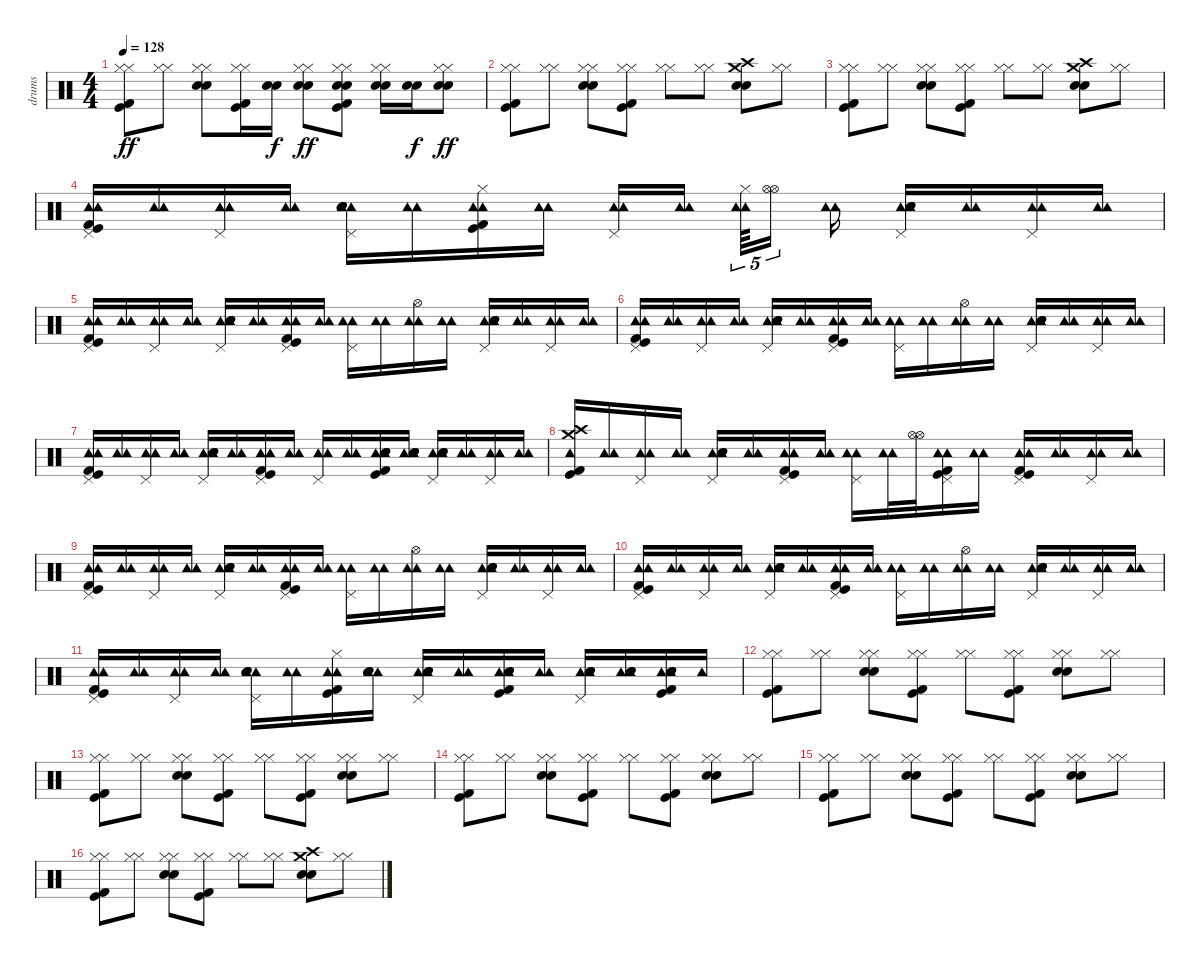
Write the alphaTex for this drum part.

\track ("drums" "drums") {instrument percussion}
\staff {score}
\articulation defaults
\ts (4 4)
\tempo 128
\clef neutral
\ks c
("Hi-Hat (closed)" "Hi-Hat (closed)" "Kick (hit)" "Kick (hit) 2").8{dy ff} ("Hi-Hat (closed)" "Hi-Hat (closed)").8 ("Hi-Hat (closed)" "Hi-Hat (closed)" "Snare (hit) 2" "Snare (hit) 2").8 ("Hi-Hat (closed)" "Hi-Hat (closed)" "Kick (hit)" "Kick (hit) 2").16 ("Snare (hit) 2" "Snare (hit) 2").16{dy f} ("Hi-Hat (closed)" "Hi-Hat (closed)" "Snare (hit) 2" "Snare (hit) 2").8{dy ff} ("Hi-Hat (closed)" "Hi-Hat (closed)" "Snare (hit) 2" "Snare (hit) 2" "Kick (hit)" "Kick (hit) 2").8 ("Hi-Hat (closed)" "Hi-Hat (closed)" "Snare (hit) 2" "Snare (hit) 2").16 ("Snare (hit) 2" "Snare (hit) 2").16{dy f} ("Hi-Hat (closed)" "Hi-Hat (closed)" "Snare (hit) 2" "Snare (hit) 2").8{dy ff} |
("Hi-Hat (closed)" "Hi-Hat (closed)" "Kick (hit)" "Kick (hit) 2").8 ("Hi-Hat (closed)" "Hi-Hat (closed)").8 ("Hi-Hat (closed)" "Hi-Hat (closed)" "Snare (hit) 2" "Snare (hit) 2").8 ("Hi-Hat (closed)" "Hi-Hat (closed)" "Kick (hit)" "Kick (hit) 2").8 ("Hi-Hat (closed)" "Hi-Hat (closed)").8 ("Hi-Hat (closed)" "Hi-Hat (closed)").8 ("Crash medium (hit)" "Snare (hit) 2" "Snare (hit) 2" "Crash high (hit)").8 ("Hi-Hat (closed)" "Hi-Hat (closed)").8 |
("Hi-Hat (closed)" "Hi-Hat (closed)" "Kick (hit)" "Kick (hit) 2").8 ("Hi-Hat (closed)" "Hi-Hat (closed)").8 ("Hi-Hat (closed)" "Hi-Hat (closed)" "Snare (hit) 2" "Snare (hit) 2").8 ("Hi-Hat (closed)" "Hi-Hat (closed)" "Kick (hit)" "Kick (hit) 2").8 ("Hi-Hat (closed)" "Hi-Hat (closed)").8 ("Hi-Hat (closed)" "Hi-Hat (closed)").8 ("Crash medium (hit)" "Snare (hit) 2" "Snare (hit) 2" "Crash high (hit)").8 ("Hi-Hat (closed)" "Hi-Hat (closed)").8 |
("Tambourine (hit)" "Tambourine (hit)" "Pedal Hi-Hat (hit)" "Kick (hit)" "Kick (hit) 2").16 ("Tambourine (hit)" "Tambourine (hit)").16 ("Tambourine (hit)" "Tambourine (hit)" "Pedal Hi-Hat (hit)").16 ("Tambourine (hit)" "Tambourine (hit)").16 ("Tambourine (hit)" "Tambourine (hit)" "Pedal Hi-Hat (hit)" "Snare (hit) 2" "Snare (hit) 2").16 ("Tambourine (hit)" "Tambourine (hit)").16 ("Tambourine (hit)" "Tambourine (hit)" "Hi-Hat (closed)" "Kick (hit)" "Kick (hit) 2").16 ("Tambourine (hit)" "Tambourine (hit)").16 ("Tambourine (hit)" "Tambourine (hit)" "Pedal Hi-Hat (hit)").16 ("Tambourine (hit)" "Tambourine (hit)").16 ("Tambourine (hit)" "Tambourine (hit)" "Hi-Hat (closed)").64{tu (5 4)} ("Hi-Hat (open)" "Hi-Hat (open)").16{tu (5 4)} ("Tambourine (hit)" "Tambourine (hit)").16 ("Tambourine (hit)" "Tambourine (hit)" "Pedal Hi-Hat (hit)" "Snare (hit) 2" "Snare (hit) 2").16 ("Tambourine (hit)" "Tambourine (hit)").16 ("Tambourine (hit)" "Tambourine (hit)" "Pedal Hi-Hat (hit)").16 ("Tambourine (hit)" "Tambourine (hit)").16 |
("Tambourine (hit)" "Tambourine (hit)" "Pedal Hi-Hat (hit)" "Kick (hit)" "Kick (hit) 2").16 ("Tambourine (hit)" "Tambourine (hit)").16 ("Tambourine (hit)" "Tambourine (hit)" "Pedal Hi-Hat (hit)").16 ("Tambourine (hit)" "Tambourine (hit)").16 ("Tambourine (hit)" "Tambourine (hit)" "Pedal Hi-Hat (hit)" "Snare (hit) 2" "Snare (hit) 2").16 ("Tambourine (hit)" "Tambourine (hit)").16 ("Tambourine (hit)" "Tambourine (hit)" "Pedal Hi-Hat (hit)" "Kick (hit)" "Kick (hit) 2").16 ("Tambourine (hit)" "Tambourine (hit)").16 ("Tambourine (hit)" "Tambourine (hit)" "Pedal Hi-Hat (hit)").16 ("Tambourine (hit)" "Tambourine (hit)").16 ("Tambourine (hit)" "Tambourine (hit)" "Hi-Hat (open)").16 ("Tambourine (hit)" "Tambourine (hit)").16 ("Tambourine (hit)" "Tambourine (hit)" "Pedal Hi-Hat (hit)" "Snare (hit) 2" "Snare (hit) 2").16 ("Tambourine (hit)" "Tambourine (hit)").16 ("Tambourine (hit)" "Tambourine (hit)" "Pedal Hi-Hat (hit)").16 ("Tambourine (hit)" "Tambourine (hit)").16 |
("Tambourine (hit)" "Tambourine (hit)" "Pedal Hi-Hat (hit)" "Kick (hit)" "Kick (hit) 2").16 ("Tambourine (hit)" "Tambourine (hit)").16 ("Tambourine (hit)" "Tambourine (hit)" "Pedal Hi-Hat (hit)").16 ("Tambourine (hit)" "Tambourine (hit)").16 ("Tambourine (hit)" "Tambourine (hit)" "Pedal Hi-Hat (hit)" "Snare (hit) 2" "Snare (hit) 2").16 ("Tambourine (hit)" "Tambourine (hit)").16 ("Tambourine (hit)" "Tambourine (hit)" "Pedal Hi-Hat (hit)" "Kick (hit)" "Kick (hit) 2").16 ("Tambourine (hit)" "Tambourine (hit)").16 ("Tambourine (hit)" "Tambourine (hit)" "Pedal Hi-Hat (hit)").16 ("Tambourine (hit)" "Tambourine (hit)").16 ("Tambourine (hit)" "Tambourine (hit)" "Hi-Hat (open)").16 ("Tambourine (hit)" "Tambourine (hit)").16 ("Tambourine (hit)" "Tambourine (hit)" "Pedal Hi-Hat (hit)" "Snare (hit) 2" "Snare (hit) 2").16 ("Tambourine (hit)" "Tambourine (hit)").16 ("Tambourine (hit)" "Tambourine (hit)" "Pedal Hi-Hat (hit)").16 ("Tambourine (hit)" "Tambourine (hit)").16 |
("Tambourine (hit)" "Tambourine (hit)" "Pedal Hi-Hat (hit)" "Kick (hit)" "Kick (hit) 2").16 ("Tambourine (hit)" "Tambourine (hit)").16 ("Tambourine (hit)" "Tambourine (hit)" "Pedal Hi-Hat (hit)").16 ("Tambourine (hit)" "Tambourine (hit)").16 ("Tambourine (hit)" "Tambourine (hit)" "Pedal Hi-Hat (hit)" "Snare (hit) 2" "Snare (hit) 2").16 ("Tambourine (hit)" "Tambourine (hit)").16 ("Pedal Hi-Hat (hit)" "Tambourine (hit)" "Tambourine (hit)" "Kick (hit)" "Kick (hit) 2").16 ("Tambourine (hit)" "Tambourine (hit)").16 ("Tambourine (hit)" "Tambourine (hit)" "Pedal Hi-Hat (hit)").16 ("Tambourine (hit)" "Tambourine (hit)").16 ("Tambourine (hit)" "Tambourine (hit)" "Snare (hit) 2" "Snare (hit) 2" "Kick (hit)" "Kick (hit) 2").16 ("Tambourine (hit)" "Tambourine (hit)" "Snare (hit) 2" "Snare (hit) 2").16 ("Tambourine (hit)" "Tambourine (hit)" "Pedal Hi-Hat (hit)" "Snare (hit) 2" "Snare (hit) 2").16 ("Tambourine (hit)" "Tambourine (hit)").16 ("Tambourine (hit)" "Tambourine (hit)" "Pedal Hi-Hat (hit)").16 ("Tambourine (hit)" "Tambourine (hit)").16 |
("Crash high (hit)" "Crash medium (hit)" "Tambourine (hit)" "Kick (hit)" "Kick (hit) 2").16 ("Tambourine (hit)" "Tambourine (hit)").16 ("Tambourine (hit)" "Tambourine (hit)" "Pedal Hi-Hat (hit)").16 ("Tambourine (hit)" "Tambourine (hit)").16 ("Tambourine (hit)" "Tambourine (hit)" "Pedal Hi-Hat (hit)" "Snare (hit) 2" "Snare (hit) 2").16 ("Tambourine (hit)" "Tambourine (hit)").16 ("Tambourine (hit)" "Tambourine (hit)" "Pedal Hi-Hat (hit)" "Kick (hit)" "Kick (hit) 2").16 ("Tambourine (hit)" "Tambourine (hit)").16 ("Tambourine (hit)" "Tambourine (hit)" "Pedal Hi-Hat (hit)").16 ("Tambourine (hit)" "Tambourine (hit)").32 ("Hi-Hat (open)" "Hi-Hat (open)").32 ("Tambourine (hit)" "Tambourine (hit)" "Pedal Hi-Hat (hit)" "Kick (hit)" "Kick (hit) 2").16 ("Tambourine (hit)" "Tambourine (hit)").16 ("Tambourine (hit)" "Tambourine (hit)" "Pedal Hi-Hat (hit)" "Kick (hit)" "Kick (hit) 2").16 ("Tambourine (hit)" "Tambourine (hit)").16 ("Tambourine (hit)" "Tambourine (hit)" "Pedal Hi-Hat (hit)").16 ("Tambourine (hit)" "Tambourine (hit)").16 |
("Tambourine (hit)" "Tambourine (hit)" "Pedal Hi-Hat (hit)" "Kick (hit)" "Kick (hit) 2").16 ("Tambourine (hit)" "Tambourine (hit)").16 ("Tambourine (hit)" "Tambourine (hit)" "Pedal Hi-Hat (hit)").16 ("Tambourine (hit)" "Tambourine (hit)").16 ("Tambourine (hit)" "Tambourine (hit)" "Pedal Hi-Hat (hit)" "Snare (hit) 2" "Snare (hit) 2").16 ("Tambourine (hit)" "Tambourine (hit)").16 ("Tambourine (hit)" "Tambourine (hit)" "Pedal Hi-Hat (hit)" "Kick (hit)" "Kick (hit) 2").16 ("Tambourine (hit)" "Tambourine (hit)").16 ("Tambourine (hit)" "Tambourine (hit)" "Pedal Hi-Hat (hit)").16 ("Tambourine (hit)" "Tambourine (hit)").16 ("Tambourine (hit)" "Tambourine (hit)" "Hi-Hat (open)").16 ("Tambourine (hit)" "Tambourine (hit)").16 ("Tambourine (hit)" "Tambourine (hit)" "Pedal Hi-Hat (hit)" "Snare (hit) 2" "Snare (hit) 2").16 ("Tambourine (hit)" "Tambourine (hit)").16 ("Tambourine (hit)" "Tambourine (hit)" "Pedal Hi-Hat (hit)").16 ("Tambourine (hit)" "Tambourine (hit)").16 |
("Tambourine (hit)" "Tambourine (hit)" "Pedal Hi-Hat (hit)" "Kick (hit)" "Kick (hit) 2").16 ("Tambourine (hit)" "Tambourine (hit)").16 ("Tambourine (hit)" "Tambourine (hit)" "Pedal Hi-Hat (hit)").16 ("Tambourine (hit)" "Tambourine (hit)").16 ("Tambourine (hit)" "Tambourine (hit)" "Pedal Hi-Hat (hit)" "Snare (hit) 2" "Snare (hit) 2").16 ("Tambourine (hit)" "Tambourine (hit)").16 ("Tambourine (hit)" "Tambourine (hit)" "Pedal Hi-Hat (hit)" "Kick (hit)" "Kick (hit) 2").16 ("Tambourine (hit)" "Tambourine (hit)").16 ("Tambourine (hit)" "Tambourine (hit)" "Pedal Hi-Hat (hit)").16 ("Tambourine (hit)" "Tambourine (hit)").16 ("Tambourine (hit)" "Tambourine (hit)" "Hi-Hat (open)").16 ("Tambourine (hit)" "Tambourine (hit)").16 ("Tambourine (hit)" "Tambourine (hit)" "Pedal Hi-Hat (hit)" "Snare (hit) 2" "Snare (hit) 2").16 ("Tambourine (hit)" "Tambourine (hit)").16 ("Tambourine (hit)" "Tambourine (hit)" "Pedal Hi-Hat (hit)").16 ("Tambourine (hit)" "Tambourine (hit)").16 |
("Tambourine (hit)" "Tambourine (hit)" "Pedal Hi-Hat (hit)" "Kick (hit)" "Kick (hit) 2").16 ("Tambourine (hit)" "Tambourine (hit)").16 ("Tambourine (hit)" "Tambourine (hit)" "Pedal Hi-Hat (hit)").16 ("Tambourine (hit)" "Tambourine (hit)").16 ("Tambourine (hit)" "Tambourine (hit)" "Pedal Hi-Hat (hit)" "Snare (hit) 2" "Snare (hit) 2").16 ("Tambourine (hit)" "Tambourine (hit)").16 ("Tambourine (hit)" "Hi-Hat (closed)" "Tambourine (hit)" "Kick (hit)" "Kick (hit) 2").16 ("Tambourine (hit)" "Tambourine (hit)" "Snare (hit) 2" "Snare (hit) 2").16 ("Tambourine (hit)" "Tambourine (hit)" "Pedal Hi-Hat (hit)" "Snare (hit) 2" "Snare (hit) 2").16 ("Tambourine (hit)" "Tambourine (hit)").16 ("Tambourine (hit)" "Tambourine (hit)" "Snare (hit) 2" "Snare (hit) 2" "Kick (hit)" "Kick (hit) 2").16 ("Tambourine (hit)" "Tambourine (hit)").16 ("Tambourine (hit)" "Tambourine (hit)" "Pedal Hi-Hat (hit)" "Snare (hit) 2" "Snare (hit) 2").16 ("Tambourine (hit)" "Tambourine (hit)" "Snare (hit) 2" "Snare (hit) 2").16 ("Tambourine (hit)" "Tambourine (hit)" "Snare (hit) 2" "Snare (hit) 2" "Kick (hit)" "Kick (hit) 2").16 "Tambourine (hit)".16 |
("Hi-Hat (closed)" "Hi-Hat (closed)" "Kick (hit)" "Kick (hit) 2").8 ("Hi-Hat (closed)" "Hi-Hat (closed)").8 ("Hi-Hat (closed)" "Hi-Hat (closed)" "Snare (hit) 2" "Snare (hit) 2").8 ("Hi-Hat (closed)" "Hi-Hat (closed)" "Kick (hit)" "Kick (hit) 2").8 ("Hi-Hat (closed)" "Hi-Hat (closed)").8 ("Hi-Hat (closed)" "Hi-Hat (closed)" "Kick (hit)" "Kick (hit) 2").8 ("Hi-Hat (closed)" "Hi-Hat (closed)" "Snare (hit) 2" "Snare (hit) 2").8 ("Hi-Hat (closed)" "Hi-Hat (closed)").8 |
("Hi-Hat (closed)" "Hi-Hat (closed)" "Kick (hit)" "Kick (hit) 2").8 ("Hi-Hat (closed)" "Hi-Hat (closed)").8 ("Hi-Hat (closed)" "Hi-Hat (closed)" "Snare (hit) 2" "Snare (hit) 2").8 ("Hi-Hat (closed)" "Hi-Hat (closed)" "Kick (hit)" "Kick (hit) 2").8 ("Hi-Hat (closed)" "Hi-Hat (closed)").8 ("Hi-Hat (closed)" "Hi-Hat (closed)" "Kick (hit)" "Kick (hit) 2").8 ("Hi-Hat (closed)" "Hi-Hat (closed)" "Snare (hit) 2" "Snare (hit) 2").8 ("Hi-Hat (closed)" "Hi-Hat (closed)").8 |
("Hi-Hat (closed)" "Hi-Hat (closed)" "Kick (hit)" "Kick (hit) 2").8 ("Hi-Hat (closed)" "Hi-Hat (closed)").8 ("Hi-Hat (closed)" "Hi-Hat (closed)" "Snare (hit) 2" "Snare (hit) 2").8 ("Hi-Hat (closed)" "Hi-Hat (closed)" "Kick (hit)" "Kick (hit) 2").8 ("Hi-Hat (closed)" "Hi-Hat (closed)").8 ("Hi-Hat (closed)" "Hi-Hat (closed)" "Kick (hit)" "Kick (hit) 2").8 ("Hi-Hat (closed)" "Hi-Hat (closed)" "Snare (hit) 2" "Snare (hit) 2").8 ("Hi-Hat (closed)" "Hi-Hat (closed)").8 |
("Hi-Hat (closed)" "Hi-Hat (closed)" "Kick (hit)" "Kick (hit) 2").8 ("Hi-Hat (closed)" "Hi-Hat (closed)").8 ("Hi-Hat (closed)" "Hi-Hat (closed)" "Snare (hit) 2" "Snare (hit) 2").8 ("Hi-Hat (closed)" "Hi-Hat (closed)" "Kick (hit)" "Kick (hit) 2").8 ("Hi-Hat (closed)" "Hi-Hat (closed)").8 ("Hi-Hat (closed)" "Hi-Hat (closed)" "Kick (hit)" "Kick (hit) 2").8 ("Hi-Hat (closed)" "Hi-Hat (closed)" "Snare (hit) 2" "Snare (hit) 2").8 ("Hi-Hat (closed)" "Hi-Hat (closed)").8 |
("Hi-Hat (closed)" "Hi-Hat (closed)" "Kick (hit)" "Kick (hit) 2").8 ("Hi-Hat (closed)" "Hi-Hat (closed)").8 ("Hi-Hat (closed)" "Hi-Hat (closed)" "Snare (hit) 2" "Snare (hit) 2").8 ("Hi-Hat (closed)" "Hi-Hat (closed)" "Kick (hit)" "Kick (hit) 2").8 ("Hi-Hat (closed)" "Hi-Hat (closed)").8 ("Hi-Hat (closed)" "Hi-Hat (closed)").8 ("Crash medium (hit)" "Snare (hit) 2" "Snare (hit) 2" "Crash high (hit)").8 ("Hi-Hat (closed)" "Hi-Hat (closed)").8
